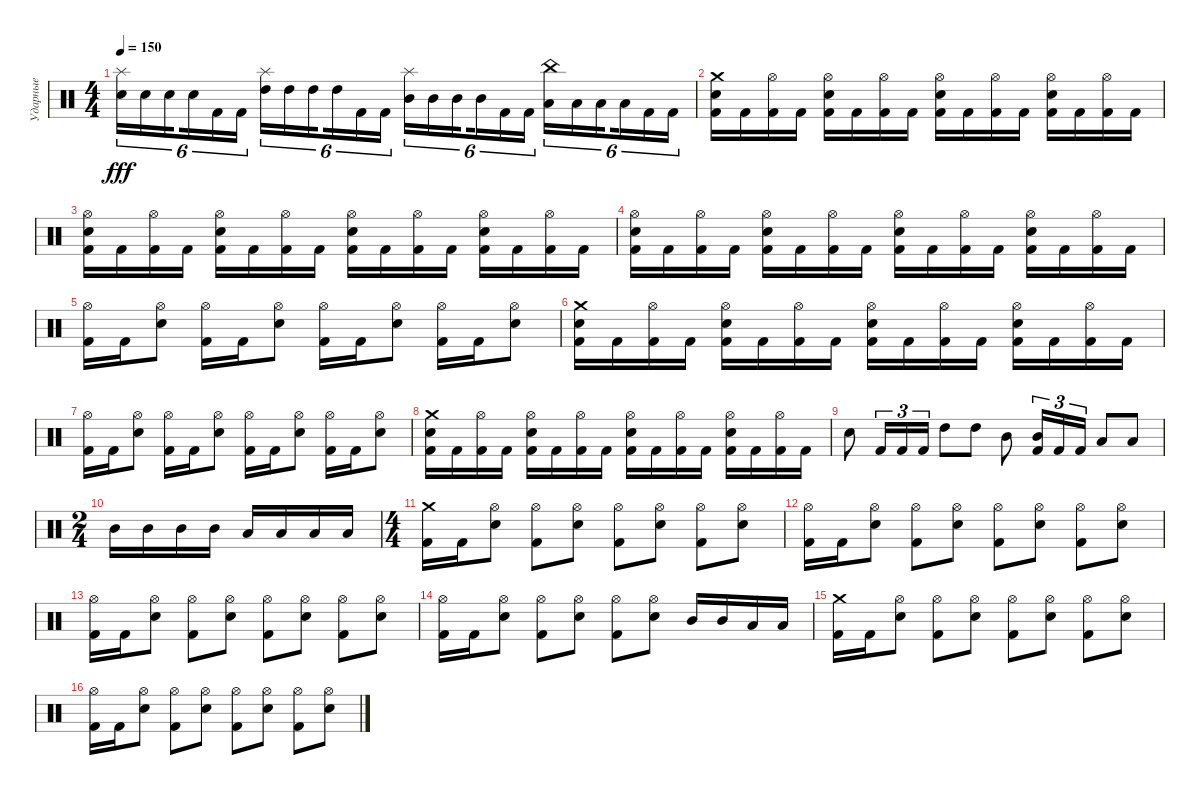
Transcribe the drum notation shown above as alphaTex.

\track ("Ударные" "Ударные") {instrument percussion}
\staff {score}
\articulation defaults
\ts (4 4)
\tempo 150
\clef neutral
\ks c
("Electric Snare (hit)" "Splash (hit)").16{tu (6 4) dy fff} "Electric Snare (hit)".16{tu (6 4)} "Electric Snare (hit)".16{tu (6 4) beam splitsecondary} "Electric Snare (hit)".16{tu (6 4)} "Kick (hit) 2".16{tu (6 4)} "Kick (hit) 2".16{tu (6 4)} ("High Tom (hit)" "Splash (hit)").16{tu (6 4)} "High Tom (hit)".16{tu (6 4)} "High Tom (hit)".16{tu (6 4) beam splitsecondary} "High Tom (hit)".16{tu (6 4)} "Kick (hit) 2".16{tu (6 4)} "Kick (hit) 2".16{tu (6 4)} ("Mid Tom (hit)" "Splash (hit)").16{tu (6 4)} "Mid Tom (hit)".16{tu (6 4)} "Mid Tom (hit)".16{tu (6 4) beam splitsecondary} "Mid Tom (hit)".16{tu (6 4)} "Kick (hit) 2".16{tu (6 4)} "Kick (hit) 2".16{tu (6 4)} ("Low Tom (hit)" "China (hit)").16{tu (6 4)} "Low Tom (hit)".16{tu (6 4)} "Low Tom (hit)".16{tu (6 4) beam splitsecondary} "Low Tom (hit)".16{tu (6 4)} "Kick (hit) 2".16{tu (6 4)} "Kick (hit) 2".16{tu (6 4)} |
("Crash medium (hit)" "Electric Snare (hit)" "Kick (hit) 2").16 "Kick (hit) 2".16 ("Hi-Hat (open)" "Kick (hit) 2").16 "Kick (hit) 2".16 ("Hi-Hat (open)" "Electric Snare (hit)" "Kick (hit) 2").16 "Kick (hit) 2".16 ("Hi-Hat (open)" "Kick (hit) 2").16 "Kick (hit) 2".16 ("Hi-Hat (open)" "Electric Snare (hit)" "Kick (hit) 2").16 "Kick (hit) 2".16 ("Hi-Hat (open)" "Kick (hit) 2").16 "Kick (hit) 2".16 ("Hi-Hat (open)" "Electric Snare (hit)" "Kick (hit) 2").16 "Kick (hit) 2".16 ("Hi-Hat (open)" "Kick (hit) 2").16 "Kick (hit) 2".16 |
("Hi-Hat (open)" "Electric Snare (hit)" "Kick (hit) 2").16 "Kick (hit) 2".16 ("Hi-Hat (open)" "Kick (hit) 2").16 "Kick (hit) 2".16 ("Hi-Hat (open)" "Electric Snare (hit)" "Kick (hit) 2").16 "Kick (hit) 2".16 ("Hi-Hat (open)" "Kick (hit) 2").16 "Kick (hit) 2".16 ("Hi-Hat (open)" "Electric Snare (hit)" "Kick (hit) 2").16 "Kick (hit) 2".16 ("Hi-Hat (open)" "Kick (hit) 2").16 "Kick (hit) 2".16 ("Hi-Hat (open)" "Electric Snare (hit)" "Kick (hit) 2").16 "Kick (hit) 2".16 ("Hi-Hat (open)" "Kick (hit) 2").16 "Kick (hit) 2".16 |
("Hi-Hat (open)" "Electric Snare (hit)" "Kick (hit) 2").16 "Kick (hit) 2".16 ("Hi-Hat (open)" "Kick (hit) 2").16 "Kick (hit) 2".16 ("Hi-Hat (open)" "Electric Snare (hit)" "Kick (hit) 2").16 "Kick (hit) 2".16 ("Hi-Hat (open)" "Kick (hit) 2").16 "Kick (hit) 2".16 ("Hi-Hat (open)" "Electric Snare (hit)" "Kick (hit) 2").16 "Kick (hit) 2".16 ("Hi-Hat (open)" "Kick (hit) 2").16 "Kick (hit) 2".16 ("Hi-Hat (open)" "Electric Snare (hit)" "Kick (hit) 2").16 "Kick (hit) 2".16 ("Hi-Hat (open)" "Kick (hit) 2").16 "Kick (hit) 2".16 |
("Hi-Hat (open)" "Kick (hit) 2").16 "Kick (hit) 2".16 ("Hi-Hat (open)" "Electric Snare (hit)").8 ("Hi-Hat (open)" "Kick (hit) 2").16 "Kick (hit) 2".16 ("Hi-Hat (open)" "Electric Snare (hit)").8 ("Hi-Hat (open)" "Kick (hit) 2").16 "Kick (hit) 2".16 ("Hi-Hat (open)" "Electric Snare (hit)").8 ("Hi-Hat (open)" "Kick (hit) 2").16 "Kick (hit) 2".16 ("Hi-Hat (open)" "Electric Snare (hit)").8 |
("Crash medium (hit)" "Electric Snare (hit)" "Kick (hit) 2").16 "Kick (hit) 2".16 ("Hi-Hat (open)" "Kick (hit) 2").16 "Kick (hit) 2".16 ("Hi-Hat (open)" "Electric Snare (hit)" "Kick (hit) 2").16 "Kick (hit) 2".16 ("Hi-Hat (open)" "Kick (hit) 2").16 "Kick (hit) 2".16 ("Hi-Hat (open)" "Electric Snare (hit)" "Kick (hit) 2").16 "Kick (hit) 2".16 ("Hi-Hat (open)" "Kick (hit) 2").16 "Kick (hit) 2".16 ("Hi-Hat (open)" "Electric Snare (hit)" "Kick (hit) 2").16 "Kick (hit) 2".16 ("Hi-Hat (open)" "Kick (hit) 2").16 "Kick (hit) 2".16 |
("Hi-Hat (open)" "Kick (hit) 2").16 "Kick (hit) 2".16 ("Hi-Hat (open)" "Electric Snare (hit)").8 ("Hi-Hat (open)" "Kick (hit) 2").16 "Kick (hit) 2".16 ("Hi-Hat (open)" "Electric Snare (hit)").8 ("Hi-Hat (open)" "Kick (hit) 2").16 "Kick (hit) 2".16 ("Hi-Hat (open)" "Electric Snare (hit)").8 ("Hi-Hat (open)" "Kick (hit) 2").16 "Kick (hit) 2".16 ("Hi-Hat (open)" "Electric Snare (hit)").8 |
("Crash medium (hit)" "Electric Snare (hit)" "Kick (hit) 2").16 "Kick (hit) 2".16 ("Hi-Hat (open)" "Kick (hit) 2").16 "Kick (hit) 2".16 ("Hi-Hat (open)" "Electric Snare (hit)" "Kick (hit) 2").16 "Kick (hit) 2".16 ("Hi-Hat (open)" "Kick (hit) 2").16 "Kick (hit) 2".16 ("Hi-Hat (open)" "Electric Snare (hit)" "Kick (hit) 2").16 "Kick (hit) 2".16 ("Hi-Hat (open)" "Kick (hit) 2").16 "Kick (hit) 2".16 ("Hi-Hat (open)" "Electric Snare (hit)" "Kick (hit) 2").16 "Kick (hit) 2".16 ("Hi-Hat (open)" "Kick (hit) 2").16 "Kick (hit) 2".16 |
"Electric Snare (hit)".8 "Kick (hit) 2".16{tu (3 2)} "Kick (hit) 2".16{tu (3 2)} "Kick (hit) 2".16{tu (3 2)} "High Tom (hit)".8 "High Tom (hit)".8 "Mid Tom (hit)".8 ("Kick (hit) 2" "Mid Tom (hit)").16{tu (3 2)} "Kick (hit) 2".16{tu (3 2)} "Kick (hit) 2".16{tu (3 2)} "Low Tom (hit)".8 "Low Tom (hit)".8 |
\ts (2 4)
"Mid Tom (hit)".16 "Mid Tom (hit)".16 "Mid Tom (hit)".16 "Mid Tom (hit)".16 "Low Tom (hit)".16 "Low Tom (hit)".16 "Low Tom (hit)".16 "Low Tom (hit)".16 |
\ts (4 4)
("Crash medium (hit)" "Kick (hit) 2").16 "Kick (hit) 2".16 ("Hi-Hat (open)" "Electric Snare (hit)").8 ("Hi-Hat (open)" "Kick (hit) 2").8 ("Hi-Hat (open)" "Electric Snare (hit)").8 ("Hi-Hat (open)" "Kick (hit) 2").8 ("Hi-Hat (open)" "Electric Snare (hit)").8 ("Hi-Hat (open)" "Kick (hit) 2").8 ("Hi-Hat (open)" "Electric Snare (hit)").8 |
("Hi-Hat (open)" "Kick (hit) 2").16 "Kick (hit) 2".16 ("Hi-Hat (open)" "Electric Snare (hit)").8 ("Hi-Hat (open)" "Kick (hit) 2").8 ("Hi-Hat (open)" "Electric Snare (hit)").8 ("Hi-Hat (open)" "Kick (hit) 2").8 ("Hi-Hat (open)" "Electric Snare (hit)").8 ("Hi-Hat (open)" "Kick (hit) 2").8 ("Hi-Hat (open)" "Electric Snare (hit)").8 |
("Hi-Hat (open)" "Kick (hit) 2").16 "Kick (hit) 2".16 ("Hi-Hat (open)" "Electric Snare (hit)").8 ("Hi-Hat (open)" "Kick (hit) 2").8 ("Hi-Hat (open)" "Electric Snare (hit)").8 ("Hi-Hat (open)" "Kick (hit) 2").8 ("Hi-Hat (open)" "Electric Snare (hit)").8 ("Hi-Hat (open)" "Kick (hit) 2").8 ("Hi-Hat (open)" "Electric Snare (hit)").8 |
("Hi-Hat (open)" "Kick (hit) 2").16 "Kick (hit) 2".16 ("Hi-Hat (open)" "Electric Snare (hit)").8 ("Hi-Hat (open)" "Kick (hit) 2").8 ("Hi-Hat (open)" "Electric Snare (hit)").8 ("Hi-Hat (open)" "Kick (hit) 2").8 ("Hi-Hat (open)" "Electric Snare (hit)").8 "Mid Tom (hit)".16 "Mid Tom (hit)".16 "Low Tom (hit)".16 "Low Tom (hit)".16 |
("Crash medium (hit)" "Kick (hit) 2").16 "Kick (hit) 2".16 ("Hi-Hat (open)" "Electric Snare (hit)").8 ("Hi-Hat (open)" "Kick (hit) 2").8 ("Hi-Hat (open)" "Electric Snare (hit)").8 ("Hi-Hat (open)" "Kick (hit) 2").8 ("Hi-Hat (open)" "Electric Snare (hit)").8 ("Hi-Hat (open)" "Kick (hit) 2").8 ("Hi-Hat (open)" "Electric Snare (hit)").8 |
("Hi-Hat (open)" "Kick (hit) 2").16 "Kick (hit) 2".16 ("Hi-Hat (open)" "Electric Snare (hit)").8 ("Hi-Hat (open)" "Kick (hit) 2").8 ("Hi-Hat (open)" "Electric Snare (hit)").8 ("Hi-Hat (open)" "Kick (hit) 2").8 ("Hi-Hat (open)" "Electric Snare (hit)").8 ("Hi-Hat (open)" "Kick (hit) 2").8 ("Hi-Hat (open)" "Electric Snare (hit)").8
